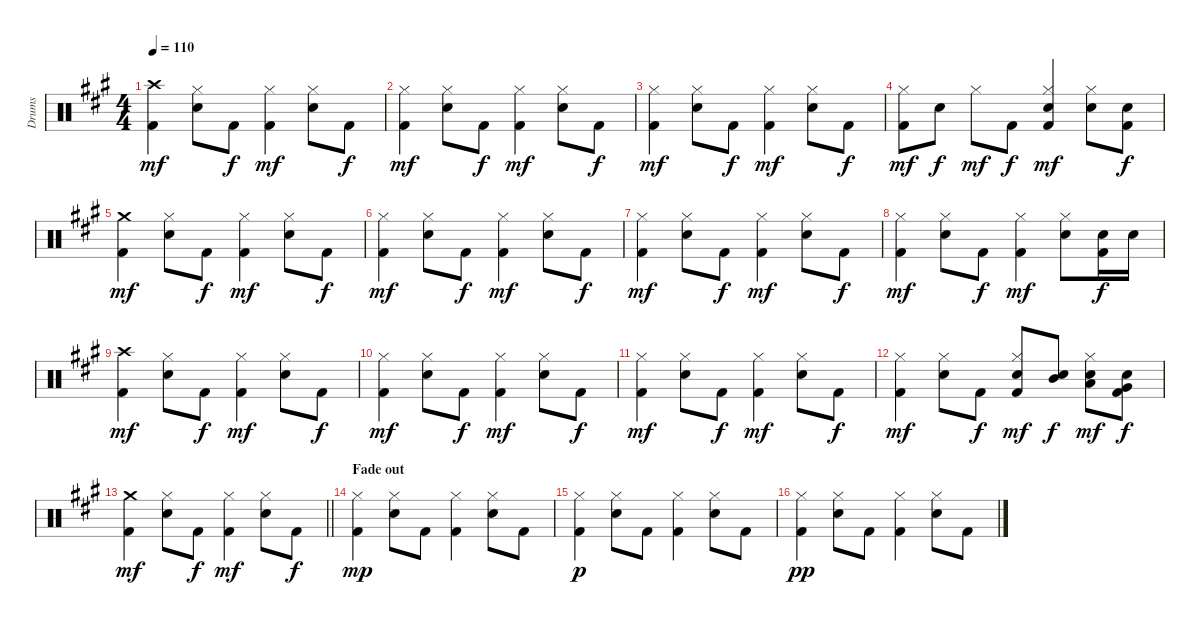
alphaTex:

\track ("Drums" "Drums") {instrument percussion}
\staff {score}
\articulation defaults
\ts (4 4)
\tempo 110
\clef neutral
\ks a
("Crash high (hit)" "Kick (hit) 2").4{dy mf} ("Hi-Hat (closed)" "Snare (hit) 2").8 "Kick (hit) 2".8{dy f} ("Hi-Hat (closed)" "Kick (hit) 2").4{dy mf} ("Hi-Hat (closed)" "Snare (hit) 2").8 "Kick (hit) 2".8{dy f} |
("Hi-Hat (closed)" "Kick (hit) 2").4{dy mf} ("Hi-Hat (closed)" "Snare (hit) 2").8 "Kick (hit) 2".8{dy f} ("Hi-Hat (closed)" "Kick (hit) 2").4{dy mf} ("Hi-Hat (closed)" "Snare (hit) 2").8 "Kick (hit) 2".8{dy f} |
("Hi-Hat (closed)" "Kick (hit) 2").4{dy mf} ("Hi-Hat (closed)" "Snare (hit) 2").8 "Kick (hit) 2".8{dy f} ("Hi-Hat (closed)" "Kick (hit) 2").4{dy mf} ("Hi-Hat (closed)" "Snare (hit) 2").8 "Kick (hit) 2".8{dy f} |
("Hi-Hat (closed)" "Kick (hit) 2").8{dy mf} "Snare (hit) 2".8{dy f} "Hi-Hat (closed)".8{dy mf} "Kick (hit) 2".8{dy f} ("Hi-Hat (closed)" "Snare (hit) 2" "Kick (hit) 2").4{dy mf} ("Hi-Hat (closed)" "Snare (hit) 2").8 ("Snare (hit) 2" "Kick (hit) 2").8{dy f} |
("Crash medium (hit)" "Kick (hit) 2").4{dy mf} ("Hi-Hat (closed)" "Snare (hit) 2").8 "Kick (hit) 2".8{dy f} ("Hi-Hat (closed)" "Kick (hit) 2").4{dy mf} ("Hi-Hat (closed)" "Snare (hit) 2").8 "Kick (hit) 2".8{dy f} |
("Hi-Hat (closed)" "Kick (hit) 2").4{dy mf} ("Hi-Hat (closed)" "Snare (hit) 2").8 "Kick (hit) 2".8{dy f} ("Hi-Hat (closed)" "Kick (hit) 2").4{dy mf} ("Hi-Hat (closed)" "Snare (hit) 2").8 "Kick (hit) 2".8{dy f} |
("Hi-Hat (closed)" "Kick (hit) 2").4{dy mf} ("Hi-Hat (closed)" "Snare (hit) 2").8 "Kick (hit) 2".8{dy f} ("Hi-Hat (closed)" "Kick (hit) 2").4{dy mf} ("Hi-Hat (closed)" "Snare (hit) 2").8 "Kick (hit) 2".8{dy f} |
("Hi-Hat (closed)" "Kick (hit) 2").4{dy mf} ("Hi-Hat (closed)" "Snare (hit) 2").8 "Kick (hit) 2".8{dy f} ("Hi-Hat (closed)" "Kick (hit) 2").4{dy mf} ("Hi-Hat (closed)" "Snare (hit) 2").8 ("Snare (hit) 2" "Kick (hit) 2").16{dy f} "Snare (hit) 2".16 |
("Crash high (hit)" "Kick (hit) 2").4{dy mf} ("Hi-Hat (closed)" "Snare (hit) 2").8 "Kick (hit) 2".8{dy f} ("Hi-Hat (closed)" "Kick (hit) 2").4{dy mf} ("Hi-Hat (closed)" "Snare (hit) 2").8 "Kick (hit) 2".8{dy f} |
("Hi-Hat (closed)" "Kick (hit) 2").4{dy mf} ("Hi-Hat (closed)" "Snare (hit) 2").8 "Kick (hit) 2".8{dy f} ("Hi-Hat (closed)" "Kick (hit) 2").4{dy mf} ("Hi-Hat (closed)" "Snare (hit) 2").8 "Kick (hit) 2".8{dy f} |
("Hi-Hat (closed)" "Kick (hit) 2").4{dy mf} ("Hi-Hat (closed)" "Snare (hit) 2").8 "Kick (hit) 2".8{dy f} ("Hi-Hat (closed)" "Kick (hit) 2").4{dy mf} ("Hi-Hat (closed)" "Snare (hit) 2").8 "Kick (hit) 2".8{dy f} |
("Hi-Hat (closed)" "Kick (hit) 2").4{dy mf} ("Hi-Hat (closed)" "Snare (hit) 2").8 "Kick (hit) 2".8{dy f} ("Hi-Hat (closed)" "Snare (hit) 2" "Kick (hit) 2").8{dy mf} ("Snare (hit) 2" "Mid Tom (hit)").8{dy f} ("Hi-Hat (closed)" "Snare (hit) 2" "Low Tom (hit)").8{dy mf} ("Snare (hit) 2" "Very Low Tom (hit)" "Kick (hit) 2").8{dy f} |
\barLineRight lightlight
("Crash medium (hit)" "Kick (hit) 2").4{dy mf} ("Hi-Hat (closed)" "Snare (hit) 2").8 "Kick (hit) 2".8{dy f} ("Hi-Hat (closed)" "Kick (hit) 2").4{dy mf} ("Hi-Hat (closed)" "Snare (hit) 2").8 "Kick (hit) 2".8{dy f} |
\section ("" "Fade out")
("Hi-Hat (closed)" "Kick (hit) 2").4{dy mp} ("Hi-Hat (closed)" "Snare (hit) 2").8 "Kick (hit) 2".8 ("Hi-Hat (closed)" "Kick (hit) 2").4 ("Hi-Hat (closed)" "Snare (hit) 2").8 "Kick (hit) 2".8 |
("Hi-Hat (closed)" "Kick (hit) 2").4{dy p} ("Hi-Hat (closed)" "Snare (hit) 2").8 "Kick (hit) 2".8 ("Hi-Hat (closed)" "Kick (hit) 2").4 ("Hi-Hat (closed)" "Snare (hit) 2").8 "Kick (hit) 2".8 |
("Hi-Hat (closed)" "Kick (hit) 2").4{dy pp} ("Hi-Hat (closed)" "Snare (hit) 2").8 "Kick (hit) 2".8 ("Hi-Hat (closed)" "Kick (hit) 2").4 ("Hi-Hat (closed)" "Snare (hit) 2").8 "Kick (hit) 2".8
